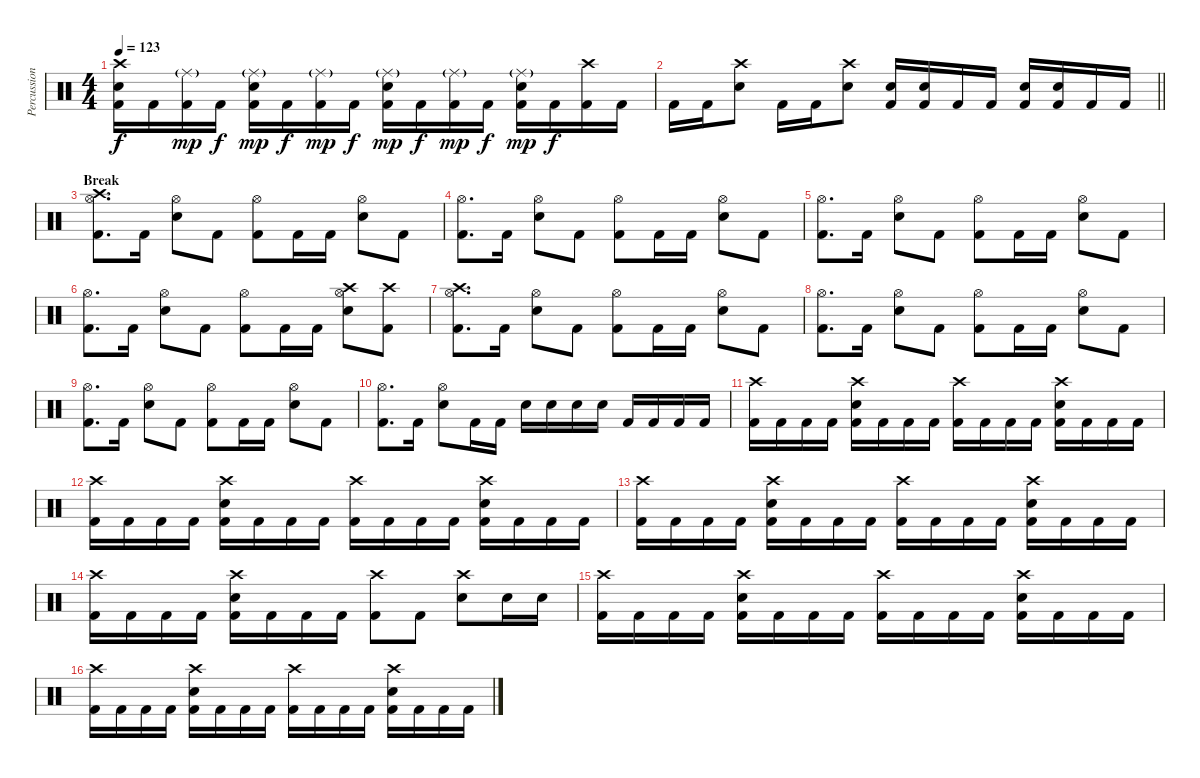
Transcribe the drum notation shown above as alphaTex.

\track ("Percussion" "Percussion") {instrument percussion}
\staff {score}
\articulation defaults
\ts (4 4)
\tempo 123
\clef neutral
\ks c
("Snare (hit) 2" "Kick (hit) 2" "Crash high (hit)").16{dy f} "Kick (hit) 2".16 ("Ride (middle)"{g} "Kick (hit) 2").16{dy mp} "Kick (hit) 2".16{dy f} ("Ride (middle)"{g} "Snare (hit) 2" "Kick (hit) 2").16{dy mp} "Kick (hit) 2".16{dy f} ("Ride (middle)"{g} "Kick (hit) 2").16{dy mp} "Kick (hit) 2".16{dy f} ("Ride (middle)"{g} "Snare (hit) 2" "Kick (hit) 2").16{dy mp} "Kick (hit) 2".16{dy f} ("Ride (middle)"{g} "Kick (hit) 2").16{dy mp} "Kick (hit) 2".16{dy f} ("Ride (middle)"{g} "Snare (hit) 2" "Kick (hit) 2").16{dy mp} "Kick (hit) 2".16{dy f} ("Kick (hit) 2" "Crash high (hit)").16 "Kick (hit) 2".16 |
\barLineRight lightlight "Kick (hit) 2".16 "Kick (hit) 2".16
("Snare (hit) 2" "Crash high (hit)").8 "Kick (hit) 2".16 "Kick (hit) 2".16 ("Snare (hit) 2" "Crash high (hit)").8 ("Snare (hit) 2" "Kick (hit) 2").16 ("Snare (hit) 2" "Kick (hit) 2").16 "Kick (hit) 2".16 "Kick (hit) 2".16 ("Snare (hit) 2" "Kick (hit) 2").16 ("Snare (hit) 2" "Kick (hit) 2").16 "Kick (hit) 2".16 "Kick (hit) 2".16 |
\section ("" "Break")
("Hi-Hat (open)" "Kick (hit) 2" "Crash high (hit)").8{d} "Kick (hit) 2".16 ("Hi-Hat (open)" "Snare (hit) 2").8 "Kick (hit) 2".8 ("Hi-Hat (open)" "Kick (hit) 2").8 "Kick (hit) 2".16 "Kick (hit) 2".16 ("Hi-Hat (open)" "Snare (hit) 2").8 "Kick (hit) 2".8 |
("Hi-Hat (open)" "Kick (hit) 2").8{d} "Kick (hit) 2".16 ("Hi-Hat (open)" "Snare (hit) 2").8 "Kick (hit) 2".8 ("Hi-Hat (open)" "Kick (hit) 2").8 "Kick (hit) 2".16 "Kick (hit) 2".16 ("Hi-Hat (open)" "Snare (hit) 2").8 "Kick (hit) 2".8 |
("Hi-Hat (open)" "Kick (hit) 2").8{d} "Kick (hit) 2".16 ("Hi-Hat (open)" "Snare (hit) 2").8 "Kick (hit) 2".8 ("Hi-Hat (open)" "Kick (hit) 2").8 "Kick (hit) 2".16 "Kick (hit) 2".16 ("Hi-Hat (open)" "Snare (hit) 2").8 "Kick (hit) 2".8 |
("Hi-Hat (open)" "Kick (hit) 2").8{d} "Kick (hit) 2".16 ("Hi-Hat (open)" "Snare (hit) 2").8 "Kick (hit) 2".8 ("Hi-Hat (open)" "Kick (hit) 2").8 "Kick (hit) 2".16 "Kick (hit) 2".16 ("Hi-Hat (open)" "Snare (hit) 2" "Crash high (hit)").8 ("Kick (hit) 2" "Crash high (hit)").8 |
("Hi-Hat (open)" "Kick (hit) 2" "Crash high (hit)").8{d} "Kick (hit) 2".16 ("Hi-Hat (open)" "Snare (hit) 2").8 "Kick (hit) 2".8 ("Hi-Hat (open)" "Kick (hit) 2").8 "Kick (hit) 2".16 "Kick (hit) 2".16 ("Hi-Hat (open)" "Snare (hit) 2").8 "Kick (hit) 2".8 |
("Hi-Hat (open)" "Kick (hit) 2").8{d} "Kick (hit) 2".16 ("Hi-Hat (open)" "Snare (hit) 2").8 "Kick (hit) 2".8 ("Hi-Hat (open)" "Kick (hit) 2").8 "Kick (hit) 2".16 "Kick (hit) 2".16 ("Hi-Hat (open)" "Snare (hit) 2").8 "Kick (hit) 2".8 |
("Hi-Hat (open)" "Kick (hit) 2").8{d} "Kick (hit) 2".16 ("Hi-Hat (open)" "Snare (hit) 2").8 "Kick (hit) 2".8 ("Hi-Hat (open)" "Kick (hit) 2").8 "Kick (hit) 2".16 "Kick (hit) 2".16 ("Hi-Hat (open)" "Snare (hit) 2").8 "Kick (hit) 2".8 |
("Hi-Hat (open)" "Kick (hit) 2").8{d} "Kick (hit) 2".16 ("Hi-Hat (open)" "Snare (hit) 2").8 "Kick (hit) 2".16 "Kick (hit) 2".16 "Snare (hit) 2".16 "Snare (hit) 2".16 "Snare (hit) 2".16 "Snare (hit) 2".16 "Kick (hit) 2".16 "Kick (hit) 2".16 "Kick (hit) 2".16 "Kick (hit) 2".16 |
("Kick (hit) 2" "Crash high (hit)").16 "Kick (hit) 2".16 "Kick (hit) 2".16 "Kick (hit) 2".16 ("Snare (hit) 2" "Kick (hit) 2" "Crash high (hit)").16 "Kick (hit) 2".16 "Kick (hit) 2".16 "Kick (hit) 2".16 ("Kick (hit) 2" "Crash high (hit)").16 "Kick (hit) 2".16 "Kick (hit) 2".16 "Kick (hit) 2".16 ("Snare (hit) 2" "Kick (hit) 2" "Crash high (hit)").16 "Kick (hit) 2".16 "Kick (hit) 2".16 "Kick (hit) 2".16 |
("Kick (hit) 2" "Crash high (hit)").16 "Kick (hit) 2".16 "Kick (hit) 2".16 "Kick (hit) 2".16 ("Snare (hit) 2" "Kick (hit) 2" "Crash high (hit)").16 "Kick (hit) 2".16 "Kick (hit) 2".16 "Kick (hit) 2".16 ("Kick (hit) 2" "Crash high (hit)").16 "Kick (hit) 2".16 "Kick (hit) 2".16 "Kick (hit) 2".16 ("Snare (hit) 2" "Kick (hit) 2" "Crash high (hit)").16 "Kick (hit) 2".16 "Kick (hit) 2".16 "Kick (hit) 2".16 |
("Kick (hit) 2" "Crash high (hit)").16 "Kick (hit) 2".16 "Kick (hit) 2".16 "Kick (hit) 2".16 ("Snare (hit) 2" "Kick (hit) 2" "Crash high (hit)").16 "Kick (hit) 2".16 "Kick (hit) 2".16 "Kick (hit) 2".16 ("Kick (hit) 2" "Crash high (hit)").16 "Kick (hit) 2".16 "Kick (hit) 2".16 "Kick (hit) 2".16 ("Snare (hit) 2" "Kick (hit) 2" "Crash high (hit)").16 "Kick (hit) 2".16 "Kick (hit) 2".16 "Kick (hit) 2".16 |
("Kick (hit) 2" "Crash high (hit)").16 "Kick (hit) 2".16 "Kick (hit) 2".16 "Kick (hit) 2".16 ("Snare (hit) 2" "Kick (hit) 2" "Crash high (hit)").16 "Kick (hit) 2".16 "Kick (hit) 2".16 "Kick (hit) 2".16 ("Kick (hit) 2" "Crash high (hit)").8 "Kick (hit) 2".8 ("Snare (hit) 2" "Crash high (hit)").8 "Snare (hit) 2".16 "Snare (hit) 2".16 |
("Kick (hit) 2" "Crash high (hit)").16 "Kick (hit) 2".16 "Kick (hit) 2".16 "Kick (hit) 2".16 ("Snare (hit) 2" "Kick (hit) 2" "Crash high (hit)").16 "Kick (hit) 2".16 "Kick (hit) 2".16 "Kick (hit) 2".16 ("Kick (hit) 2" "Crash high (hit)").16 "Kick (hit) 2".16 "Kick (hit) 2".16 "Kick (hit) 2".16 ("Snare (hit) 2" "Kick (hit) 2" "Crash high (hit)").16 "Kick (hit) 2".16 "Kick (hit) 2".16 "Kick (hit) 2".16 |
("Kick (hit) 2" "Crash high (hit)").16 "Kick (hit) 2".16 "Kick (hit) 2".16 "Kick (hit) 2".16 ("Snare (hit) 2" "Kick (hit) 2" "Crash high (hit)").16 "Kick (hit) 2".16 "Kick (hit) 2".16 "Kick (hit) 2".16 ("Kick (hit) 2" "Crash high (hit)").16 "Kick (hit) 2".16 "Kick (hit) 2".16 "Kick (hit) 2".16 ("Snare (hit) 2" "Kick (hit) 2" "Crash high (hit)").16 "Kick (hit) 2".16 "Kick (hit) 2".16 "Kick (hit) 2".16
